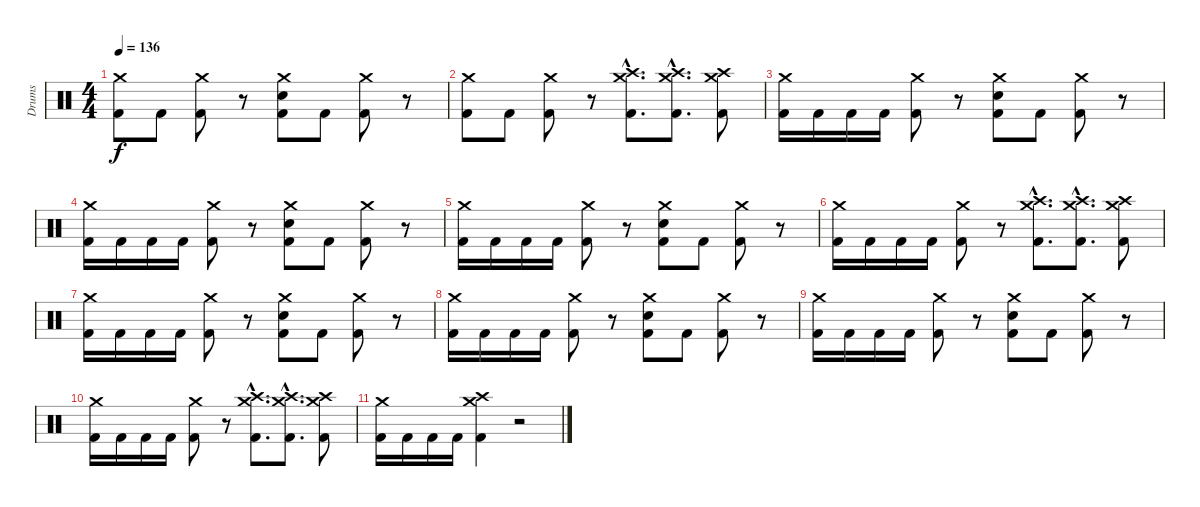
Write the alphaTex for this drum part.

\track ("Drums" "Drums") {instrument percussion}
\staff {score}
\articulation defaults
\ts (4 4)
\tempo 136
\clef neutral
\ks c
("Crash medium (hit)" "Kick (hit) 2").8{dy f} "Kick (hit) 2".8 ("Crash medium (hit)" "Kick (hit) 2").8 r.8 ("Crash medium (hit)" "Snare (hit) 2" "Kick (hit) 2").8 "Kick (hit) 2".8 ("Crash medium (hit)" "Kick (hit) 2").8 r.8 |
("Crash medium (hit)" "Kick (hit) 2").8 "Kick (hit) 2".8 ("Crash medium (hit)" "Kick (hit) 2").8 r.8 ("Crash medium (hit)"{hac} "Crash high (hit)"{hac} "Kick (hit) 2"{hac}).8{d} ("Crash medium (hit)"{hac} "Crash high (hit)"{hac} "Kick (hit) 2"{hac}).8{d} ("Crash medium (hit)" "Crash high (hit)" "Kick (hit) 2").8 |
("Crash medium (hit)" "Kick (hit) 2").16 "Kick (hit) 2".16 "Kick (hit) 2".16 "Kick (hit) 2".16 ("Crash medium (hit)" "Kick (hit) 2").8 r.8 ("Crash medium (hit)" "Snare (hit) 2" "Kick (hit) 2").8 "Kick (hit) 2".8 ("Crash medium (hit)" "Kick (hit) 2").8 r.8 |
("Crash medium (hit)" "Kick (hit) 2").16 "Kick (hit) 2".16 "Kick (hit) 2".16 "Kick (hit) 2".16 ("Crash medium (hit)" "Kick (hit) 2").8 r.8 ("Crash medium (hit)" "Snare (hit) 2" "Kick (hit) 2").8 "Kick (hit) 2".8 ("Crash medium (hit)" "Kick (hit) 2").8 r.8 |
("Crash medium (hit)" "Kick (hit) 2").16 "Kick (hit) 2".16 "Kick (hit) 2".16 "Kick (hit) 2".16 ("Crash medium (hit)" "Kick (hit) 2").8 r.8 ("Crash medium (hit)" "Snare (hit) 2" "Kick (hit) 2").8 "Kick (hit) 2".8 ("Crash medium (hit)" "Kick (hit) 2").8 r.8 |
("Crash medium (hit)" "Kick (hit) 2").16 "Kick (hit) 2".16 "Kick (hit) 2".16 "Kick (hit) 2".16 ("Crash medium (hit)" "Kick (hit) 2").8 r.8 ("Crash medium (hit)"{hac} "Crash high (hit)"{hac} "Kick (hit) 2"{hac}).8{d} ("Crash medium (hit)"{hac} "Crash high (hit)"{hac} "Kick (hit) 2"{hac}).8{d} ("Crash medium (hit)" "Crash high (hit)" "Kick (hit) 2").8 |
("Crash medium (hit)" "Kick (hit) 2").16 "Kick (hit) 2".16 "Kick (hit) 2".16 "Kick (hit) 2".16 ("Crash medium (hit)" "Kick (hit) 2").8 r.8 ("Crash medium (hit)" "Snare (hit) 2" "Kick (hit) 2").8 "Kick (hit) 2".8 ("Crash medium (hit)" "Kick (hit) 2").8 r.8 |
("Crash medium (hit)" "Kick (hit) 2").16 "Kick (hit) 2".16 "Kick (hit) 2".16 "Kick (hit) 2".16 ("Crash medium (hit)" "Kick (hit) 2").8 r.8 ("Crash medium (hit)" "Snare (hit) 2" "Kick (hit) 2").8 "Kick (hit) 2".8 ("Crash medium (hit)" "Kick (hit) 2").8 r.8 |
("Crash medium (hit)" "Kick (hit) 2").16 "Kick (hit) 2".16 "Kick (hit) 2".16 "Kick (hit) 2".16 ("Crash medium (hit)" "Kick (hit) 2").8 r.8 ("Crash medium (hit)" "Snare (hit) 2" "Kick (hit) 2").8 "Kick (hit) 2".8 ("Crash medium (hit)" "Kick (hit) 2").8 r.8 |
("Crash medium (hit)" "Kick (hit) 2").16 "Kick (hit) 2".16 "Kick (hit) 2".16 "Kick (hit) 2".16 ("Crash medium (hit)" "Kick (hit) 2").8 r.8 ("Crash medium (hit)"{hac} "Crash high (hit)"{hac} "Kick (hit) 2"{hac}).8{d} ("Crash medium (hit)"{hac} "Crash high (hit)"{hac} "Kick (hit) 2"{hac}).8{d} ("Crash medium (hit)" "Crash high (hit)" "Kick (hit) 2").8 |
("Crash medium (hit)" "Kick (hit) 2").16 "Kick (hit) 2".16 "Kick (hit) 2".16 "Kick (hit) 2".16 ("Crash medium (hit)" "Crash high (hit)" "Kick (hit) 2").4 r.2
